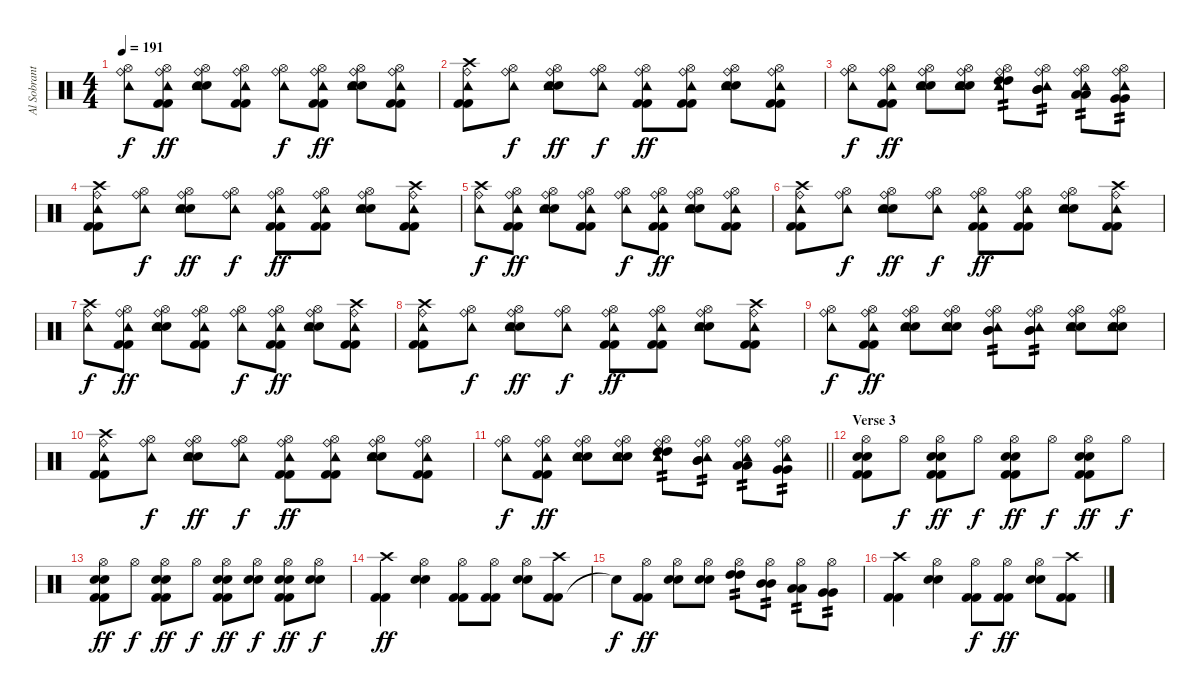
\track ("Al Sobrante (Drums)" "Al Sobrant") {instrument percussion}
\staff {score}
\articulation defaults
\ts (4 4)
\tempo 191
\clef neutral
\ks c
("Ride (bell)" "Tambourine (hit)" "Hi-Hat (open)").8{dy f} ("Kick (hit) 2" "Kick (hit) 2" "Ride (bell)" "Tambourine (hit)" "Hi-Hat (open)").8{dy ff} ("Electric Snare (hit)" "Electric Snare (hit)" "Ride (bell)" "Tambourine (hit)" "Hi-Hat (open)").8 ("Kick (hit) 2" "Kick (hit) 2" "Ride (bell)" "Tambourine (hit)" "Hi-Hat (open)").8 ("Ride (bell)" "Tambourine (hit)" "Hi-Hat (open)").8{dy f} ("Kick (hit) 2" "Kick (hit) 2" "Ride (bell)" "Tambourine (hit)" "Hi-Hat (open)").8{dy ff} ("Electric Snare (hit)" "Electric Snare (hit)" "Ride (bell)" "Tambourine (hit)" "Hi-Hat (open)").8 ("Kick (hit) 2" "Kick (hit) 2" "Ride (bell)" "Tambourine (hit)" "Hi-Hat (open)").8 |
("Kick (hit) 2" "Kick (hit) 2" "Ride (bell)" "Tambourine (hit)" "Crash high (hit)").8 ("Ride (bell)" "Tambourine (hit)" "Hi-Hat (open)").8{dy f} ("Electric Snare (hit)" "Electric Snare (hit)" "Ride (bell)" "Tambourine (hit)" "Hi-Hat (open)").8{dy ff} ("Ride (bell)" "Tambourine (hit)" "Hi-Hat (open)").8{dy f} ("Kick (hit) 2" "Kick (hit) 2" "Ride (bell)" "Tambourine (hit)" "Hi-Hat (open)").8{dy ff} ("Kick (hit) 2" "Kick (hit) 2" "Ride (bell)" "Tambourine (hit)" "Hi-Hat (open)").8 ("Electric Snare (hit)" "Electric Snare (hit)" "Ride (bell)" "Tambourine (hit)" "Hi-Hat (open)").8 ("Kick (hit) 2" "Kick (hit) 2" "Ride (bell)" "Tambourine (hit)" "Hi-Hat (open)").8 |
("Ride (bell)" "Tambourine (hit)" "Hi-Hat (open)").8{dy f} ("Kick (hit) 2" "Kick (hit) 2" "Ride (bell)" "Tambourine (hit)" "Hi-Hat (open)").8{dy ff} ("Electric Snare (hit)" "Electric Snare (hit)" "Ride (bell)" "Tambourine (hit)" "Hi-Hat (open)").8 ("Electric Snare (hit)" "Electric Snare (hit)" "Ride (bell)" "Tambourine (hit)" "Hi-Hat (open)").8 ("High Tom (hit)" "High Tom (hit)" "Ride (bell)" "Tambourine (hit)" "Hi-Hat (open)").8{tp 2} ("Mid Tom (hit)" "Mid Tom (hit)" "Ride (bell)" "Tambourine (hit)" "Hi-Hat (open)").8{tp 2} ("Low Tom (hit)" "Low Tom (hit)" "Ride (bell)" "Tambourine (hit)" "Hi-Hat (open)").8{tp 2} ("Very Low Tom (hit)" "Very Low Tom (hit)" "Ride (bell)" "Tambourine (hit)" "Hi-Hat (open)").8{tp 2} |
("Kick (hit) 2" "Kick (hit) 2" "Ride (bell)" "Tambourine (hit)" "Crash high (hit)").8 ("Ride (bell)" "Tambourine (hit)" "Hi-Hat (open)").8{dy f} ("Electric Snare (hit)" "Electric Snare (hit)" "Ride (bell)" "Tambourine (hit)" "Hi-Hat (open)").8{dy ff} ("Ride (bell)" "Tambourine (hit)" "Hi-Hat (open)").8{dy f} ("Kick (hit) 2" "Kick (hit) 2" "Ride (bell)" "Tambourine (hit)" "Hi-Hat (open)").8{dy ff} ("Kick (hit) 2" "Kick (hit) 2" "Ride (bell)" "Tambourine (hit)" "Hi-Hat (open)").8 ("Electric Snare (hit)" "Electric Snare (hit)" "Ride (bell)" "Tambourine (hit)" "Hi-Hat (open)").8 ("Kick (hit) 2" "Kick (hit) 2" "Ride (bell)" "Tambourine (hit)" "Crash high (hit)").8 |
("Ride (bell)" "Tambourine (hit)" "Crash high (hit)").8{dy f} ("Kick (hit) 2" "Kick (hit) 2" "Ride (bell)" "Tambourine (hit)" "Hi-Hat (open)").8{dy ff} ("Electric Snare (hit)" "Electric Snare (hit)" "Ride (bell)" "Tambourine (hit)" "Hi-Hat (open)").8 ("Kick (hit) 2" "Kick (hit) 2" "Ride (bell)" "Tambourine (hit)" "Hi-Hat (open)").8 ("Ride (bell)" "Tambourine (hit)" "Hi-Hat (open)").8{dy f} ("Kick (hit) 2" "Kick (hit) 2" "Ride (bell)" "Tambourine (hit)" "Hi-Hat (open)").8{dy ff} ("Electric Snare (hit)" "Electric Snare (hit)" "Ride (bell)" "Tambourine (hit)" "Hi-Hat (open)").8 ("Kick (hit) 2" "Kick (hit) 2" "Ride (bell)" "Tambourine (hit)" "Hi-Hat (open)").8 |
("Kick (hit) 2" "Kick (hit) 2" "Ride (bell)" "Tambourine (hit)" "Crash high (hit)").8 ("Ride (bell)" "Tambourine (hit)" "Hi-Hat (open)").8{dy f} ("Electric Snare (hit)" "Electric Snare (hit)" "Ride (bell)" "Tambourine (hit)" "Hi-Hat (open)").8{dy ff} ("Ride (bell)" "Tambourine (hit)" "Hi-Hat (open)").8{dy f} ("Kick (hit) 2" "Kick (hit) 2" "Ride (bell)" "Tambourine (hit)" "Hi-Hat (open)").8{dy ff} ("Kick (hit) 2" "Kick (hit) 2" "Ride (bell)" "Tambourine (hit)" "Hi-Hat (open)").8 ("Electric Snare (hit)" "Electric Snare (hit)" "Ride (bell)" "Tambourine (hit)" "Hi-Hat (open)").8 ("Kick (hit) 2" "Kick (hit) 2" "Ride (bell)" "Tambourine (hit)" "Crash high (hit)").8 |
("Ride (bell)" "Tambourine (hit)" "Crash high (hit)").8{dy f} ("Kick (hit) 2" "Kick (hit) 2" "Ride (bell)" "Tambourine (hit)" "Hi-Hat (open)").8{dy ff} ("Electric Snare (hit)" "Electric Snare (hit)" "Ride (bell)" "Tambourine (hit)" "Hi-Hat (open)").8 ("Kick (hit) 2" "Kick (hit) 2" "Ride (bell)" "Tambourine (hit)" "Hi-Hat (open)").8 ("Ride (bell)" "Tambourine (hit)" "Hi-Hat (open)").8{dy f} ("Kick (hit) 2" "Kick (hit) 2" "Ride (bell)" "Tambourine (hit)" "Hi-Hat (open)").8{dy ff} ("Electric Snare (hit)" "Electric Snare (hit)" "Ride (bell)" "Tambourine (hit)" "Hi-Hat (open)").8 ("Kick (hit) 2" "Kick (hit) 2" "Ride (bell)" "Tambourine (hit)" "Crash high (hit)").8 |
("Kick (hit) 2" "Kick (hit) 2" "Ride (bell)" "Tambourine (hit)" "Crash high (hit)").8 ("Ride (bell)" "Tambourine (hit)" "Hi-Hat (open)").8{dy f} ("Electric Snare (hit)" "Electric Snare (hit)" "Ride (bell)" "Tambourine (hit)" "Hi-Hat (open)").8{dy ff} ("Ride (bell)" "Tambourine (hit)" "Hi-Hat (open)").8{dy f} ("Kick (hit) 2" "Kick (hit) 2" "Ride (bell)" "Tambourine (hit)" "Hi-Hat (open)").8{dy ff} ("Kick (hit) 2" "Kick (hit) 2" "Ride (bell)" "Tambourine (hit)" "Hi-Hat (open)").8 ("Electric Snare (hit)" "Electric Snare (hit)" "Ride (bell)" "Tambourine (hit)" "Hi-Hat (open)").8 ("Kick (hit) 2" "Kick (hit) 2" "Ride (bell)" "Tambourine (hit)" "Crash high (hit)").8 |
("Ride (bell)" "Tambourine (hit)" "Hi-Hat (open)").8{dy f} ("Kick (hit) 2" "Kick (hit) 2" "Ride (bell)" "Tambourine (hit)" "Hi-Hat (open)").8{dy ff} ("Electric Snare (hit)" "Electric Snare (hit)" "Ride (bell)" "Tambourine (hit)" "Hi-Hat (open)").8 ("Electric Snare (hit)" "Electric Snare (hit)" "Ride (bell)" "Tambourine (hit)" "Hi-Hat (open)").8 ("Mid Tom (hit)" "Mid Tom (hit)" "Ride (bell)" "Tambourine (hit)" "Hi-Hat (open)").8{tp 2} ("Mid Tom (hit)" "Mid Tom (hit)" "Ride (bell)" "Tambourine (hit)" "Hi-Hat (open)").8{tp 2} ("Electric Snare (hit)" "Electric Snare (hit)" "Ride (bell)" "Tambourine (hit)" "Hi-Hat (open)").8 ("Electric Snare (hit)" "Electric Snare (hit)" "Ride (bell)" "Tambourine (hit)" "Hi-Hat (open)").8 |
("Kick (hit) 2" "Kick (hit) 2" "Ride (bell)" "Tambourine (hit)" "Crash high (hit)").8 ("Ride (bell)" "Tambourine (hit)" "Hi-Hat (open)").8{dy f} ("Electric Snare (hit)" "Electric Snare (hit)" "Ride (bell)" "Tambourine (hit)" "Hi-Hat (open)").8{dy ff} ("Ride (bell)" "Tambourine (hit)" "Hi-Hat (open)").8{dy f} ("Kick (hit) 2" "Kick (hit) 2" "Ride (bell)" "Tambourine (hit)" "Hi-Hat (open)").8{dy ff} ("Kick (hit) 2" "Kick (hit) 2" "Ride (bell)" "Tambourine (hit)" "Hi-Hat (open)").8 ("Electric Snare (hit)" "Electric Snare (hit)" "Ride (bell)" "Tambourine (hit)" "Hi-Hat (open)").8 ("Kick (hit) 2" "Kick (hit) 2" "Ride (bell)" "Tambourine (hit)" "Hi-Hat (open)").8 |
\barLineRight lightlight
("Ride (bell)" "Tambourine (hit)" "Hi-Hat (open)").8{dy f} ("Kick (hit) 2" "Kick (hit) 2" "Ride (bell)" "Tambourine (hit)" "Hi-Hat (open)").8{dy ff} ("Electric Snare (hit)" "Electric Snare (hit)" "Ride (bell)" "Tambourine (hit)" "Hi-Hat (open)").8 ("Electric Snare (hit)" "Electric Snare (hit)" "Ride (bell)" "Tambourine (hit)" "Hi-Hat (open)").8 ("High Tom (hit)" "High Tom (hit)" "Ride (bell)" "Tambourine (hit)" "Hi-Hat (open)").8{tp 2} ("Mid Tom (hit)" "Mid Tom (hit)" "Ride (bell)" "Tambourine (hit)" "Hi-Hat (open)").8{tp 2} ("Low Tom (hit)" "Low Tom (hit)" "Ride (bell)" "Tambourine (hit)" "Hi-Hat (open)").8{tp 2} ("Very Low Tom (hit)" "Very Low Tom (hit)" "Ride (bell)" "Tambourine (hit)" "Hi-Hat (open)").8{tp 2} |
\section ("" "Verse 3")
("Kick (hit) 2" "Kick (hit) 2" "Electric Snare (hit)" "Electric Snare (hit)" "Hi-Hat (open)").8 "Hi-Hat (open)".8{dy f} ("Kick (hit) 2" "Kick (hit) 2" "Electric Snare (hit)" "Electric Snare (hit)" "Hi-Hat (open)").8{dy ff} "Hi-Hat (open)".8{dy f} ("Kick (hit) 2" "Kick (hit) 2" "Electric Snare (hit)" "Electric Snare (hit)" "Hi-Hat (open)").8{dy ff} "Hi-Hat (open)".8{dy f} ("Kick (hit) 2" "Kick (hit) 2" "Electric Snare (hit)" "Electric Snare (hit)" "Hi-Hat (open)").8{dy ff} "Hi-Hat (open)".8{dy f} |
("Kick (hit) 2" "Kick (hit) 2" "Electric Snare (hit)" "Electric Snare (hit)" "Hi-Hat (open)").8{dy ff} "Hi-Hat (open)".8{dy f} ("Kick (hit) 2" "Kick (hit) 2" "Electric Snare (hit)" "Electric Snare (hit)" "Hi-Hat (open)").8{dy ff} "Hi-Hat (open)".8{dy f} ("Kick (hit) 2" "Kick (hit) 2" "Electric Snare (hit)" "Electric Snare (hit)" "Hi-Hat (open)").8{dy ff} ("Electric Snare (hit)" "Electric Snare (hit)" "Hi-Hat (open)").8{dy f} ("Kick (hit) 2" "Kick (hit) 2" "Electric Snare (hit)" "Electric Snare (hit)" "Hi-Hat (open)").8{dy ff} ("Electric Snare (hit)" "Electric Snare (hit)" "Hi-Hat (open)").8{dy f} |
("Kick (hit) 2" "Kick (hit) 2" "Crash high (hit)").4{dy ff} ("Electric Snare (hit)" "Electric Snare (hit)" "Hi-Hat (open)").4 ("Kick (hit) 2" "Kick (hit) 2" "Hi-Hat (open)").8 ("Kick (hit) 2" "Kick (hit) 2" "Hi-Hat (open)").8 ("Electric Snare (hit)" "Electric Snare (hit)" "Hi-Hat (open)").8 ("Kick (hit) 2" "Kick (hit) 2" "Crash high (hit)").8 |
"Snare (hit)"{t}.8{dy f} ("Kick (hit) 2" "Kick (hit) 2" "Hi-Hat (open)").8{dy ff} ("Electric Snare (hit)" "Electric Snare (hit)" "Hi-Hat (open)").8 ("Electric Snare (hit)" "Electric Snare (hit)" "Hi-Hat (open)").8 ("High Tom (hit)" "High Tom (hit)" "Hi-Hat (open)").8{tp 2} ("Mid Tom (hit)" "Mid Tom (hit)" "Hi-Hat (open)").8{tp 2} ("Low Tom (hit)" "Low Tom (hit)" "Hi-Hat (open)").8{tp 2} ("Very Low Tom (hit)" "Very Low Tom (hit)" "Hi-Hat (open)").8{tp 2} |
("Kick (hit) 2" "Kick (hit) 2" "Crash high (hit)").4 ("Electric Snare (hit)" "Electric Snare (hit)" "Hi-Hat (open)").4 ("Kick (hit) 2" "Kick (hit) 2" "Hi-Hat (open)").8{dy f} ("Kick (hit) 2" "Kick (hit) 2" "Hi-Hat (open)").8{dy ff} ("Electric Snare (hit)" "Electric Snare (hit)" "Hi-Hat (open)").8 ("Kick (hit) 2" "Kick (hit) 2" "Crash high (hit)").8
